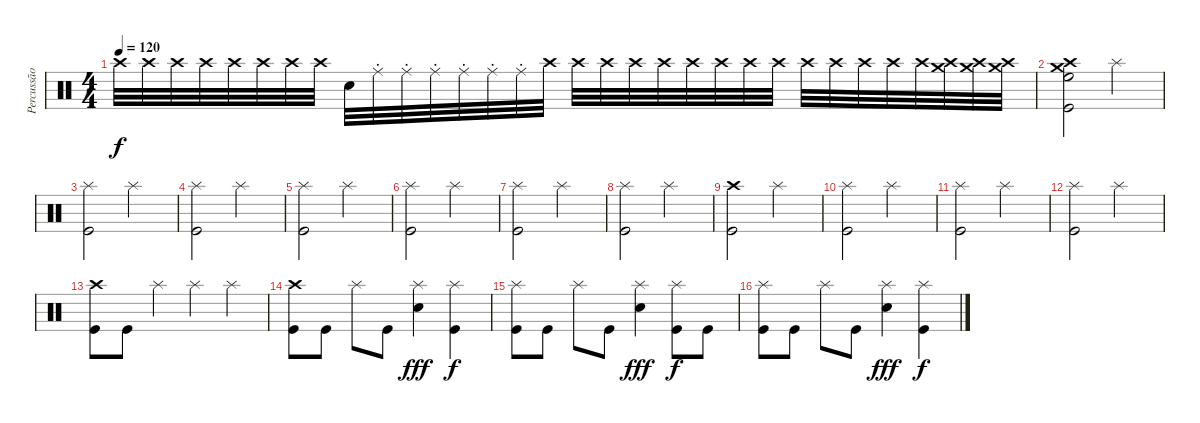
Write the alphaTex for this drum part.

\track ("Percussão" "Percussão") {instrument percussion}
\staff {score}
\articulation defaults
\ts (4 4)
\tempo 120
\clef neutral
\ks c "Crash high (hit)".32{dy f volume 1 balance 16} "Crash high (hit)".32{volume 16} "Crash high (hit)".32 "Crash high (hit)".32 "Crash high (hit)".32 "Crash high (hit)".32 "Crash high (hit)".32 "Crash high (hit)".32 "Snare (hit)".32 "Ride (choke)".32 "Ride (choke)".32 "Ride (choke)".32 "Ride (choke)".32 "Ride (choke)".32 "Ride (choke)".32 "Crash high (hit)".32 "Crash high (hit)".32 "Crash high (hit)".32 "Crash high (hit)".32 "Crash high (hit)".32 "Crash high (hit)".32 "Crash high (hit)".32 "Crash high (hit)".32 "Crash high (hit)".32 "Crash high (hit)".32 "Crash high (hit)".32 "Crash high (hit)".32 "Crash high (hit)".32 "Crash high (hit)".32
("Crash high (hit)" "Crash medium (hit)").32 ("Crash high (hit)" "Crash medium (hit)").32 ("Crash high (hit)" "Crash medium (hit)").32 |
("Crash high (hit)" "Crash medium (hit)" "High Floor Tom (hit)" "Kick (hit)").2 "Splash (hit)".2 |
("Splash (hit)" "Kick (hit)").2 "Splash (hit)".2 |
("Splash (hit)" "Kick (hit)").2 "Splash (hit)".2 |
("Splash (hit)" "Kick (hit)").2 "Splash (hit)".2 |
("Splash (hit)" "Kick (hit)").2 "Splash (hit)".2 |
("Splash (hit)" "Kick (hit)").2 "Splash (hit)".2 |
("Splash (hit)" "Kick (hit)").2 "Splash (hit)".2 |
("Crash high (hit)" "Kick (hit)").2 "Splash (hit)".2 |
("Splash (hit)" "Kick (hit)").2 "Splash (hit)".2 |
("Splash (hit)" "Kick (hit)").2 "Splash (hit)".2 |
("Splash (hit)" "Kick (hit)").2 "Splash (hit)".2 |
("Crash high (hit)" "Kick (hit)").8 "Kick (hit)".8 "Splash (hit)".4 "Splash (hit)".4 "Splash (hit)".4 |
("Crash high (hit)" "Kick (hit)").8 "Kick (hit)".8 "Splash (hit)".8 "Kick (hit)".8 ("Splash (hit)" "Snare (hit) 2").4{dy fff} ("Splash (hit)" "Kick (hit)").4{dy f} |
("Splash (hit)" "Kick (hit)").8 "Kick (hit)".8 "Splash (hit)".8 "Kick (hit)".8 ("Splash (hit)" "Snare (hit) 2").4{dy fff} ("Splash (hit)" "Kick (hit)").8{dy f} "Kick (hit)".8 |
("Splash (hit)" "Kick (hit)").8 "Kick (hit)".8 "Splash (hit)".8 "Kick (hit)".8 ("Splash (hit)" "Snare (hit) 2").4{dy fff} ("Splash (hit)" "Kick (hit)").4{dy f}
